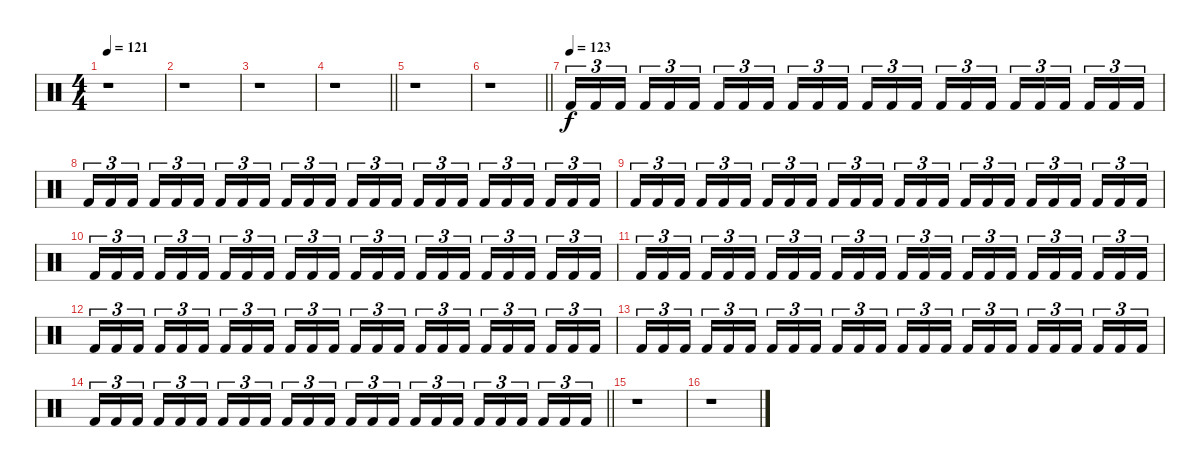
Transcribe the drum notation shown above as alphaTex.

\track "" {instrument percussion}
\staff {score}
\articulation defaults
\ts (4 4)
\tempo 121
\clef neutral
\ks c
r.1{dy f} |
r.1 |
r.1 |
\barLineRight lightlight
r.1 |
r.1 |
\barLineRight lightlight
r.1 |
\tempo (123)
"Kick (hit) 2".16{tu (3 2)} "Kick (hit) 2".16{tu (3 2)} "Kick (hit) 2".16{tu (3 2) beam splitsecondary} "Kick (hit) 2".16{tu (3 2)} "Kick (hit) 2".16{tu (3 2)} "Kick (hit) 2".16{tu (3 2)} "Kick (hit) 2".16{tu (3 2)} "Kick (hit) 2".16{tu (3 2)} "Kick (hit) 2".16{tu (3 2) beam splitsecondary} "Kick (hit) 2".16{tu (3 2)} "Kick (hit) 2".16{tu (3 2)} "Kick (hit) 2".16{tu (3 2)} "Kick (hit) 2".16{tu (3 2)} "Kick (hit) 2".16{tu (3 2)} "Kick (hit) 2".16{tu (3 2) beam splitsecondary} "Kick (hit) 2".16{tu (3 2)} "Kick (hit) 2".16{tu (3 2)} "Kick (hit) 2".16{tu (3 2)} "Kick (hit) 2".16{tu (3 2)} "Kick (hit) 2".16{tu (3 2)} "Kick (hit) 2".16{tu (3 2) beam splitsecondary} "Kick (hit) 2".16{tu (3 2)} "Kick (hit) 2".16{tu (3 2)} "Kick (hit) 2".16{tu (3 2)} |
"Kick (hit) 2".16{tu (3 2)} "Kick (hit) 2".16{tu (3 2)} "Kick (hit) 2".16{tu (3 2) beam splitsecondary} "Kick (hit) 2".16{tu (3 2)} "Kick (hit) 2".16{tu (3 2)} "Kick (hit) 2".16{tu (3 2)} "Kick (hit) 2".16{tu (3 2)} "Kick (hit) 2".16{tu (3 2)} "Kick (hit) 2".16{tu (3 2) beam splitsecondary} "Kick (hit) 2".16{tu (3 2)} "Kick (hit) 2".16{tu (3 2)} "Kick (hit) 2".16{tu (3 2)} "Kick (hit) 2".16{tu (3 2)} "Kick (hit) 2".16{tu (3 2)} "Kick (hit) 2".16{tu (3 2) beam splitsecondary} "Kick (hit) 2".16{tu (3 2)} "Kick (hit) 2".16{tu (3 2)} "Kick (hit) 2".16{tu (3 2)} "Kick (hit) 2".16{tu (3 2)} "Kick (hit) 2".16{tu (3 2)} "Kick (hit) 2".16{tu (3 2) beam splitsecondary} "Kick (hit) 2".16{tu (3 2)} "Kick (hit) 2".16{tu (3 2)} "Kick (hit) 2".16{tu (3 2)} |
"Kick (hit) 2".16{tu (3 2)} "Kick (hit) 2".16{tu (3 2)} "Kick (hit) 2".16{tu (3 2) beam splitsecondary} "Kick (hit) 2".16{tu (3 2)} "Kick (hit) 2".16{tu (3 2)} "Kick (hit) 2".16{tu (3 2)} "Kick (hit) 2".16{tu (3 2)} "Kick (hit) 2".16{tu (3 2)} "Kick (hit) 2".16{tu (3 2) beam splitsecondary} "Kick (hit) 2".16{tu (3 2)} "Kick (hit) 2".16{tu (3 2)} "Kick (hit) 2".16{tu (3 2)} "Kick (hit) 2".16{tu (3 2)} "Kick (hit) 2".16{tu (3 2)} "Kick (hit) 2".16{tu (3 2) beam splitsecondary} "Kick (hit) 2".16{tu (3 2)} "Kick (hit) 2".16{tu (3 2)} "Kick (hit) 2".16{tu (3 2)} "Kick (hit) 2".16{tu (3 2)} "Kick (hit) 2".16{tu (3 2)} "Kick (hit) 2".16{tu (3 2) beam splitsecondary} "Kick (hit) 2".16{tu (3 2)} "Kick (hit) 2".16{tu (3 2)} "Kick (hit) 2".16{tu (3 2)} |
"Kick (hit) 2".16{tu (3 2)} "Kick (hit) 2".16{tu (3 2)} "Kick (hit) 2".16{tu (3 2) beam splitsecondary} "Kick (hit) 2".16{tu (3 2)} "Kick (hit) 2".16{tu (3 2)} "Kick (hit) 2".16{tu (3 2)} "Kick (hit) 2".16{tu (3 2)} "Kick (hit) 2".16{tu (3 2)} "Kick (hit) 2".16{tu (3 2) beam splitsecondary} "Kick (hit) 2".16{tu (3 2)} "Kick (hit) 2".16{tu (3 2)} "Kick (hit) 2".16{tu (3 2)} "Kick (hit) 2".16{tu (3 2)} "Kick (hit) 2".16{tu (3 2)} "Kick (hit) 2".16{tu (3 2) beam splitsecondary} "Kick (hit) 2".16{tu (3 2)} "Kick (hit) 2".16{tu (3 2)} "Kick (hit) 2".16{tu (3 2)} "Kick (hit) 2".16{tu (3 2)} "Kick (hit) 2".16{tu (3 2)} "Kick (hit) 2".16{tu (3 2) beam splitsecondary} "Kick (hit) 2".16{tu (3 2)} "Kick (hit) 2".16{tu (3 2)} "Kick (hit) 2".16{tu (3 2)} |
"Kick (hit) 2".16{tu (3 2)} "Kick (hit) 2".16{tu (3 2)} "Kick (hit) 2".16{tu (3 2) beam splitsecondary} "Kick (hit) 2".16{tu (3 2)} "Kick (hit) 2".16{tu (3 2)} "Kick (hit) 2".16{tu (3 2)} "Kick (hit) 2".16{tu (3 2)} "Kick (hit) 2".16{tu (3 2)} "Kick (hit) 2".16{tu (3 2) beam splitsecondary} "Kick (hit) 2".16{tu (3 2)} "Kick (hit) 2".16{tu (3 2)} "Kick (hit) 2".16{tu (3 2)} "Kick (hit) 2".16{tu (3 2)} "Kick (hit) 2".16{tu (3 2)} "Kick (hit) 2".16{tu (3 2) beam splitsecondary} "Kick (hit) 2".16{tu (3 2)} "Kick (hit) 2".16{tu (3 2)} "Kick (hit) 2".16{tu (3 2)} "Kick (hit) 2".16{tu (3 2)} "Kick (hit) 2".16{tu (3 2)} "Kick (hit) 2".16{tu (3 2) beam splitsecondary} "Kick (hit) 2".16{tu (3 2)} "Kick (hit) 2".16{tu (3 2)} "Kick (hit) 2".16{tu (3 2)} |
"Kick (hit) 2".16{tu (3 2)} "Kick (hit) 2".16{tu (3 2)} "Kick (hit) 2".16{tu (3 2) beam splitsecondary} "Kick (hit) 2".16{tu (3 2)} "Kick (hit) 2".16{tu (3 2)} "Kick (hit) 2".16{tu (3 2)} "Kick (hit) 2".16{tu (3 2)} "Kick (hit) 2".16{tu (3 2)} "Kick (hit) 2".16{tu (3 2) beam splitsecondary} "Kick (hit) 2".16{tu (3 2)} "Kick (hit) 2".16{tu (3 2)} "Kick (hit) 2".16{tu (3 2)} "Kick (hit) 2".16{tu (3 2)} "Kick (hit) 2".16{tu (3 2)} "Kick (hit) 2".16{tu (3 2) beam splitsecondary} "Kick (hit) 2".16{tu (3 2)} "Kick (hit) 2".16{tu (3 2)} "Kick (hit) 2".16{tu (3 2)} "Kick (hit) 2".16{tu (3 2)} "Kick (hit) 2".16{tu (3 2)} "Kick (hit) 2".16{tu (3 2) beam splitsecondary} "Kick (hit) 2".16{tu (3 2)} "Kick (hit) 2".16{tu (3 2)} "Kick (hit) 2".16{tu (3 2)} |
"Kick (hit) 2".16{tu (3 2)} "Kick (hit) 2".16{tu (3 2)} "Kick (hit) 2".16{tu (3 2) beam splitsecondary} "Kick (hit) 2".16{tu (3 2)} "Kick (hit) 2".16{tu (3 2)} "Kick (hit) 2".16{tu (3 2)} "Kick (hit) 2".16{tu (3 2)} "Kick (hit) 2".16{tu (3 2)} "Kick (hit) 2".16{tu (3 2) beam splitsecondary} "Kick (hit) 2".16{tu (3 2)} "Kick (hit) 2".16{tu (3 2)} "Kick (hit) 2".16{tu (3 2)} "Kick (hit) 2".16{tu (3 2)} "Kick (hit) 2".16{tu (3 2)} "Kick (hit) 2".16{tu (3 2) beam splitsecondary} "Kick (hit) 2".16{tu (3 2)} "Kick (hit) 2".16{tu (3 2)} "Kick (hit) 2".16{tu (3 2)} "Kick (hit) 2".16{tu (3 2)} "Kick (hit) 2".16{tu (3 2)} "Kick (hit) 2".16{tu (3 2) beam splitsecondary} "Kick (hit) 2".16{tu (3 2)} "Kick (hit) 2".16{tu (3 2)} "Kick (hit) 2".16{tu (3 2)} |
\barLineRight lightlight "Kick (hit) 2".16{tu (3 2)} "Kick (hit) 2".16{tu (3 2)} "Kick (hit) 2".16{tu (3 2) beam splitsecondary} "Kick (hit) 2".16{tu (3 2)} "Kick (hit) 2".16{tu (3 2)} "Kick (hit) 2".16{tu (3 2)} "Kick (hit) 2".16{tu (3 2)} "Kick (hit) 2".16{tu (3 2)} "Kick (hit) 2".16{tu (3 2) beam splitsecondary} "Kick (hit) 2".16{tu (3 2)} "Kick (hit) 2".16{tu (3 2)} "Kick (hit) 2".16{tu (3 2)} "Kick (hit) 2".16{tu (3 2)} "Kick (hit) 2".16{tu (3 2)} "Kick (hit) 2".16{tu (3 2) beam splitsecondary} "Kick (hit) 2".16{tu (3 2)} "Kick (hit) 2".16{tu (3 2)} "Kick (hit) 2".16{tu (3 2)} "Kick (hit) 2".16{tu (3 2)} "Kick (hit) 2".16{tu (3 2)} "Kick (hit) 2".16{tu (3 2) beam splitsecondary} "Kick (hit) 2".16{tu (3 2)} "Kick (hit) 2".16{tu (3 2)} "Kick (hit) 2".16{tu (3 2)}
|
r.1 |
r.1
